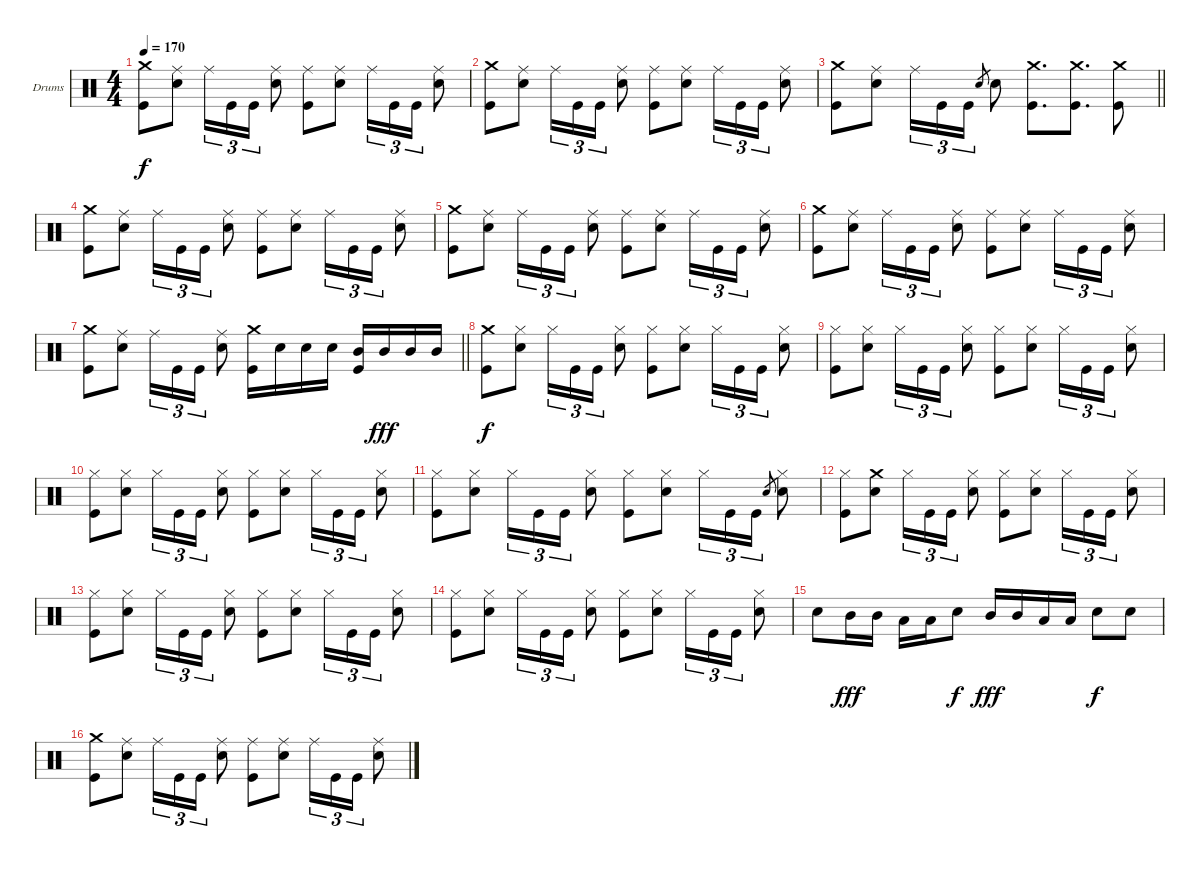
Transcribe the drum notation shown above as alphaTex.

\bracketExtendMode groupsimilarinstruments
\firstSystemTrackNameOrientation horizontal
\otherSystemsTrackNameOrientation horizontal
\track ("Drums" "Drums") {instrument percussion}
\staff {score}
\articulation defaults
\ts (4 4)
\tempo 170
\clef neutral
\ks c
("Crash medium (hit)" "Kick (hit)").8{dy f} ("Ride (middle)" "Snare (hit) 2").8 "Ride (middle)".16{tu (3 2)} "Kick (hit)".16{tu (3 2)} "Kick (hit)".16{tu (3 2)} ("Ride (middle)" "Snare (hit) 2").8 ("Ride (middle)" "Kick (hit)").8 ("Ride (middle)" "Snare (hit) 2").8 "Ride (middle)".16{tu (3 2)} "Kick (hit)".16{tu (3 2)} "Kick (hit)".16{tu (3 2)} ("Ride (middle)" "Snare (hit) 2").8 |
("Crash medium (hit)" "Kick (hit)").8 ("Ride (middle)" "Snare (hit) 2").8 "Ride (middle)".16{tu (3 2)} "Kick (hit)".16{tu (3 2)} "Kick (hit)".16{tu (3 2)} ("Ride (middle)" "Snare (hit) 2").8 ("Ride (middle)" "Kick (hit)").8 ("Ride (middle)" "Snare (hit) 2").8 "Ride (middle)".16{tu (3 2)} "Kick (hit)".16{tu (3 2)} "Kick (hit)".16{tu (3 2)} ("Ride (middle)" "Snare (hit) 2").8 |
\barLineRight lightlight
("Crash medium (hit)" "Kick (hit)").8 ("Ride (middle)" "Snare (hit) 2").8 "Ride (middle)".16{tu (3 2)} "Kick (hit)".16{tu (3 2)} "Kick (hit)".16{tu (3 2)} "Snare (hit) 2".8{gr} "Snare (hit) 2".8 ("Crash medium (hit)" "Kick (hit)").8{d} ("Crash medium (hit)" "Kick (hit)").8{d} ("Crash medium (hit)" "Kick (hit)").8 |
("Crash medium (hit)" "Kick (hit)").8 ("Ride (middle)" "Snare (hit) 2").8 "Ride (middle)".16{tu (3 2)} "Kick (hit)".16{tu (3 2)} "Kick (hit)".16{tu (3 2)} ("Ride (middle)" "Snare (hit) 2").8 ("Ride (middle)" "Kick (hit)").8 ("Ride (middle)" "Snare (hit) 2").8 "Ride (middle)".16{tu (3 2)} "Kick (hit)".16{tu (3 2)} "Kick (hit)".16{tu (3 2)} ("Ride (middle)" "Snare (hit) 2").8 |
("Crash medium (hit)" "Kick (hit)").8 ("Ride (middle)" "Snare (hit) 2").8 "Ride (middle)".16{tu (3 2)} "Kick (hit)".16{tu (3 2)} "Kick (hit)".16{tu (3 2)} ("Ride (middle)" "Snare (hit) 2").8 ("Ride (middle)" "Kick (hit)").8 ("Ride (middle)" "Snare (hit) 2").8 "Ride (middle)".16{tu (3 2)} "Kick (hit)".16{tu (3 2)} "Kick (hit)".16{tu (3 2)} ("Ride (middle)" "Snare (hit) 2").8 |
("Crash medium (hit)" "Kick (hit)").8 ("Ride (middle)" "Snare (hit) 2").8 "Ride (middle)".16{tu (3 2)} "Kick (hit)".16{tu (3 2)} "Kick (hit)".16{tu (3 2)} ("Ride (middle)" "Snare (hit) 2").8 ("Ride (middle)" "Kick (hit)").8 ("Ride (middle)" "Snare (hit) 2").8 "Ride (middle)".16{tu (3 2)} "Kick (hit)".16{tu (3 2)} "Kick (hit)".16{tu (3 2)} ("Ride (middle)" "Snare (hit) 2").8 |
\barLineRight lightlight
("Crash medium (hit)" "Kick (hit)").8 ("Ride (middle)" "Snare (hit) 2").8 "Ride (middle)".16{tu (3 2)} "Kick (hit)".16{tu (3 2)} "Kick (hit)".16{tu (3 2)} ("Ride (middle)" "Snare (hit) 2").8 ("Crash medium (hit)" "Kick (hit)").16 "Snare (hit) 2".16 "Snare (hit) 2".16 "Snare (hit) 2".16 ("Kick (hit)" "Mid Tom (hit)").16 "Mid Tom (hit)".16{dy fff} "Mid Tom (hit)".16 "Mid Tom (hit)".16 |
("Crash medium (hit)" "Kick (hit)").8{dy f} ("Snare (hit) 2" "Hi-Hat (closed)").8 "Hi-Hat (closed)".16{tu (3 2)} "Kick (hit)".16{tu (3 2)} "Kick (hit)".16{tu (3 2)} ("Snare (hit) 2" "Hi-Hat (closed)").8 ("Kick (hit)" "Hi-Hat (closed)").8 ("Snare (hit) 2" "Hi-Hat (closed)").8 "Hi-Hat (closed)".16{tu (3 2)} "Kick (hit)".16{tu (3 2)} "Kick (hit)".16{tu (3 2)} ("Snare (hit) 2" "Hi-Hat (closed)").8 |
("Kick (hit)" "Hi-Hat (closed)").8 ("Snare (hit) 2" "Hi-Hat (closed)").8 "Hi-Hat (closed)".16{tu (3 2)} "Kick (hit)".16{tu (3 2)} "Kick (hit)".16{tu (3 2)} ("Snare (hit) 2" "Hi-Hat (closed)").8 ("Kick (hit)" "Hi-Hat (closed)").8 ("Snare (hit) 2" "Hi-Hat (closed)").8 "Hi-Hat (closed)".16{tu (3 2)} "Kick (hit)".16{tu (3 2)} "Kick (hit)".16{tu (3 2)} ("Snare (hit) 2" "Hi-Hat (closed)").8 |
("Kick (hit)" "Hi-Hat (closed)").8 ("Snare (hit) 2" "Hi-Hat (closed)").8 "Hi-Hat (closed)".16{tu (3 2)} "Kick (hit)".16{tu (3 2)} "Kick (hit)".16{tu (3 2)} ("Snare (hit) 2" "Hi-Hat (closed)").8 ("Kick (hit)" "Hi-Hat (closed)").8 ("Snare (hit) 2" "Hi-Hat (closed)").8 "Hi-Hat (closed)".16{tu (3 2)} "Kick (hit)".16{tu (3 2)} "Kick (hit)".16{tu (3 2)} ("Snare (hit) 2" "Hi-Hat (closed)").8 |
("Kick (hit)" "Hi-Hat (closed)").8 ("Snare (hit) 2" "Hi-Hat (closed)").8 "Hi-Hat (closed)".16{tu (3 2)} "Kick (hit)".16{tu (3 2)} "Kick (hit)".16{tu (3 2)} ("Snare (hit) 2" "Hi-Hat (closed)").8 ("Kick (hit)" "Hi-Hat (closed)").8 ("Snare (hit) 2" "Hi-Hat (closed)").8 "Hi-Hat (closed)".16{tu (3 2)} "Kick (hit)".16{tu (3 2)} "Kick (hit)".16{tu (3 2)} "Snare (hit) 2".8{gr} ("Snare (hit) 2" "Hi-Hat (closed)").8 |
("Kick (hit)" "Hi-Hat (closed)").8 ("Snare (hit) 2" "Crash medium (hit)").8 "Hi-Hat (closed)".16{tu (3 2)} "Kick (hit)".16{tu (3 2)} "Kick (hit)".16{tu (3 2)} ("Snare (hit) 2" "Hi-Hat (closed)").8 ("Kick (hit)" "Hi-Hat (closed)").8 ("Snare (hit) 2" "Hi-Hat (closed)").8 "Hi-Hat (closed)".16{tu (3 2)} "Kick (hit)".16{tu (3 2)} "Kick (hit)".16{tu (3 2)} ("Snare (hit) 2" "Hi-Hat (closed)").8 |
("Kick (hit)" "Hi-Hat (closed)").8 ("Snare (hit) 2" "Hi-Hat (closed)").8 "Hi-Hat (closed)".16{tu (3 2)} "Kick (hit)".16{tu (3 2)} "Kick (hit)".16{tu (3 2)} ("Snare (hit) 2" "Hi-Hat (closed)").8 ("Kick (hit)" "Hi-Hat (closed)").8 ("Snare (hit) 2" "Hi-Hat (closed)").8 "Hi-Hat (closed)".16{tu (3 2)} "Kick (hit)".16{tu (3 2)} "Kick (hit)".16{tu (3 2)} ("Snare (hit) 2" "Hi-Hat (closed)").8 |
("Kick (hit)" "Hi-Hat (closed)").8 ("Snare (hit) 2" "Hi-Hat (closed)").8 "Hi-Hat (closed)".16{tu (3 2)} "Kick (hit)".16{tu (3 2)} "Kick (hit)".16{tu (3 2)} ("Snare (hit) 2" "Hi-Hat (closed)").8 ("Kick (hit)" "Hi-Hat (closed)").8 ("Snare (hit) 2" "Hi-Hat (closed)").8 "Hi-Hat (closed)".16{tu (3 2)} "Kick (hit)".16{tu (3 2)} "Kick (hit)".16{tu (3 2)} ("Snare (hit) 2" "Hi-Hat (closed)").8 |
"Snare (hit) 2".8 "Mid Tom (hit)".16{dy fff} "Mid Tom (hit)".16 "Low Tom (hit)".16 "Low Tom (hit)".16 "Snare (hit) 2".8{dy f} "Mid Tom (hit)".16{dy fff} "Mid Tom (hit)".16 "Low Tom (hit)".16 "Low Tom (hit)".16 "Snare (hit) 2".8{dy f} "Snare (hit) 2".8 |
("Crash medium (hit)" "Kick (hit)").8 ("Ride (middle)" "Snare (hit) 2").8 "Ride (middle)".16{tu (3 2)} "Kick (hit)".16{tu (3 2)} "Kick (hit)".16{tu (3 2)} ("Ride (middle)" "Snare (hit) 2").8 ("Ride (middle)" "Kick (hit)").8 ("Ride (middle)" "Snare (hit) 2").8 "Ride (middle)".16{tu (3 2)} "Kick (hit)".16{tu (3 2)} "Kick (hit)".16{tu (3 2)} ("Ride (middle)" "Snare (hit) 2").8
